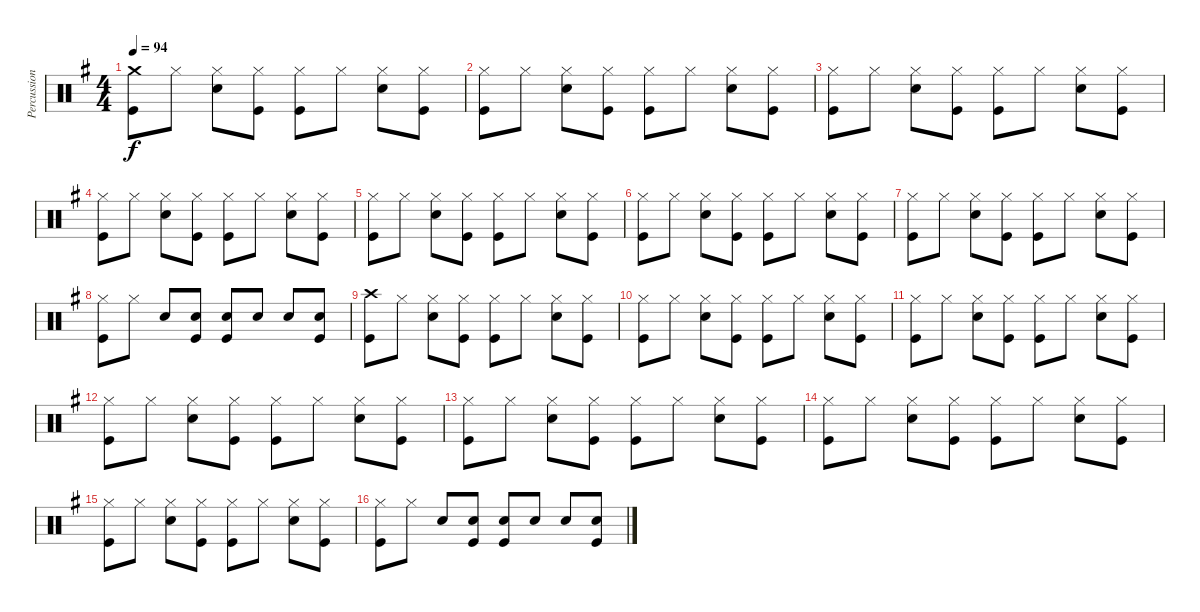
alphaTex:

\track ("Percussion" "Percussion") {instrument percussion}
\staff {score}
\articulation defaults
\ts (4 4)
\tempo 94
\clef neutral
\ks g
("Crash medium (hit)" "Kick (hit)").8{dy f} "Hi-Hat (closed)".8 ("Hi-Hat (closed)" "Snare (hit) 2").8 ("Hi-Hat (closed)" "Kick (hit)").8 ("Hi-Hat (closed)" "Kick (hit)").8 "Hi-Hat (closed)".8 ("Hi-Hat (closed)" "Snare (hit) 2").8 ("Hi-Hat (closed)" "Kick (hit)").8 |
("Hi-Hat (closed)" "Kick (hit)").8 "Hi-Hat (closed)".8 ("Hi-Hat (closed)" "Snare (hit) 2").8 ("Hi-Hat (closed)" "Kick (hit)").8 ("Hi-Hat (closed)" "Kick (hit)").8 "Hi-Hat (closed)".8 ("Hi-Hat (closed)" "Snare (hit) 2").8 ("Hi-Hat (closed)" "Kick (hit)").8 |
("Hi-Hat (closed)" "Kick (hit)").8 "Hi-Hat (closed)".8 ("Hi-Hat (closed)" "Snare (hit) 2").8 ("Hi-Hat (closed)" "Kick (hit)").8 ("Hi-Hat (closed)" "Kick (hit)").8 "Hi-Hat (closed)".8 ("Hi-Hat (closed)" "Snare (hit) 2").8 ("Hi-Hat (closed)" "Kick (hit)").8 |
("Hi-Hat (closed)" "Kick (hit)").8 "Hi-Hat (closed)".8 ("Hi-Hat (closed)" "Snare (hit) 2").8 ("Hi-Hat (closed)" "Kick (hit)").8 ("Hi-Hat (closed)" "Kick (hit)").8 "Hi-Hat (closed)".8 ("Hi-Hat (closed)" "Snare (hit) 2").8 ("Hi-Hat (closed)" "Kick (hit)").8 |
("Hi-Hat (closed)" "Kick (hit)").8 "Hi-Hat (closed)".8 ("Hi-Hat (closed)" "Snare (hit) 2").8 ("Hi-Hat (closed)" "Kick (hit)").8 ("Hi-Hat (closed)" "Kick (hit)").8 "Hi-Hat (closed)".8 ("Hi-Hat (closed)" "Snare (hit) 2").8 ("Hi-Hat (closed)" "Kick (hit)").8 |
("Hi-Hat (closed)" "Kick (hit)").8 "Hi-Hat (closed)".8 ("Hi-Hat (closed)" "Snare (hit) 2").8 ("Hi-Hat (closed)" "Kick (hit)").8 ("Hi-Hat (closed)" "Kick (hit)").8 "Hi-Hat (closed)".8 ("Hi-Hat (closed)" "Snare (hit) 2").8 ("Hi-Hat (closed)" "Kick (hit)").8 |
("Hi-Hat (closed)" "Kick (hit)").8 "Hi-Hat (closed)".8 ("Hi-Hat (closed)" "Snare (hit) 2").8 ("Hi-Hat (closed)" "Kick (hit)").8 ("Hi-Hat (closed)" "Kick (hit)").8 "Hi-Hat (closed)".8 ("Hi-Hat (closed)" "Snare (hit) 2").8 ("Hi-Hat (closed)" "Kick (hit)").8 |
("Hi-Hat (closed)" "Kick (hit)").8 "Hi-Hat (closed)".8 "Snare (hit) 2".8 ("Snare (hit) 2" "Kick (hit)").8 ("Snare (hit) 2" "Kick (hit)").8 "Snare (hit) 2".8 "Snare (hit) 2".8 ("Snare (hit) 2" "Kick (hit)").8 |
("Crash high (hit)" "Kick (hit)").8 "Hi-Hat (closed)".8 ("Hi-Hat (closed)" "Snare (hit) 2").8 ("Hi-Hat (closed)" "Kick (hit)").8 ("Hi-Hat (closed)" "Kick (hit)").8 "Hi-Hat (closed)".8 ("Hi-Hat (closed)" "Snare (hit) 2").8 ("Hi-Hat (closed)" "Kick (hit)").8 |
("Hi-Hat (closed)" "Kick (hit)").8 "Hi-Hat (closed)".8 ("Hi-Hat (closed)" "Snare (hit) 2").8 ("Hi-Hat (closed)" "Kick (hit)").8 ("Hi-Hat (closed)" "Kick (hit)").8 "Hi-Hat (closed)".8 ("Hi-Hat (closed)" "Snare (hit) 2").8 ("Hi-Hat (closed)" "Kick (hit)").8 |
("Hi-Hat (closed)" "Kick (hit)").8 "Hi-Hat (closed)".8 ("Hi-Hat (closed)" "Snare (hit) 2").8 ("Hi-Hat (closed)" "Kick (hit)").8 ("Hi-Hat (closed)" "Kick (hit)").8 "Hi-Hat (closed)".8 ("Hi-Hat (closed)" "Snare (hit) 2").8 ("Hi-Hat (closed)" "Kick (hit)").8 |
("Hi-Hat (closed)" "Kick (hit)").8 "Hi-Hat (closed)".8 ("Hi-Hat (closed)" "Snare (hit) 2").8 ("Hi-Hat (closed)" "Kick (hit)").8 ("Hi-Hat (closed)" "Kick (hit)").8 "Hi-Hat (closed)".8 ("Hi-Hat (closed)" "Snare (hit) 2").8 ("Hi-Hat (closed)" "Kick (hit)").8 |
("Hi-Hat (closed)" "Kick (hit)").8 "Hi-Hat (closed)".8 ("Hi-Hat (closed)" "Snare (hit) 2").8 ("Hi-Hat (closed)" "Kick (hit)").8 ("Hi-Hat (closed)" "Kick (hit)").8 "Hi-Hat (closed)".8 ("Hi-Hat (closed)" "Snare (hit) 2").8 ("Hi-Hat (closed)" "Kick (hit)").8 |
("Hi-Hat (closed)" "Kick (hit)").8 "Hi-Hat (closed)".8 ("Hi-Hat (closed)" "Snare (hit) 2").8 ("Hi-Hat (closed)" "Kick (hit)").8 ("Hi-Hat (closed)" "Kick (hit)").8 "Hi-Hat (closed)".8 ("Hi-Hat (closed)" "Snare (hit) 2").8 ("Hi-Hat (closed)" "Kick (hit)").8 |
("Hi-Hat (closed)" "Kick (hit)").8 "Hi-Hat (closed)".8 ("Hi-Hat (closed)" "Snare (hit) 2").8 ("Hi-Hat (closed)" "Kick (hit)").8 ("Hi-Hat (closed)" "Kick (hit)").8 "Hi-Hat (closed)".8 ("Hi-Hat (closed)" "Snare (hit) 2").8 ("Hi-Hat (closed)" "Kick (hit)").8 |
("Hi-Hat (closed)" "Kick (hit)").8 "Hi-Hat (closed)".8 "Snare (hit) 2".8 ("Snare (hit) 2" "Kick (hit)").8 ("Snare (hit) 2" "Kick (hit)").8 "Snare (hit) 2".8 "Snare (hit) 2".8 ("Snare (hit) 2" "Kick (hit)").8
